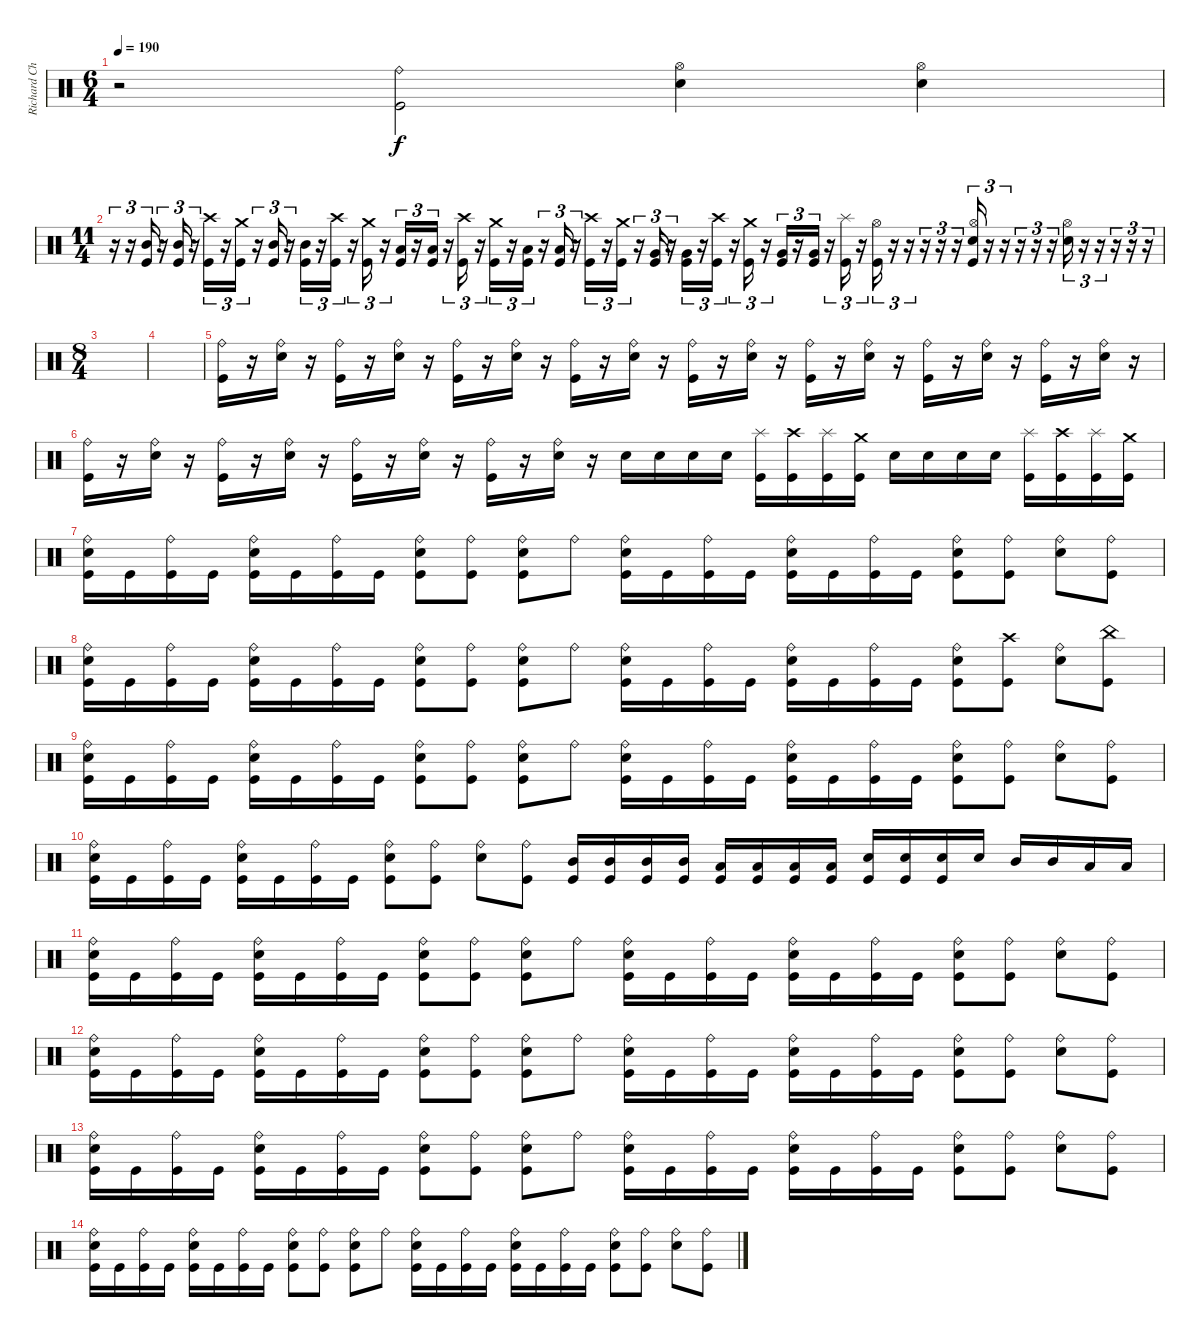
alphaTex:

\track ("Richard Christy" "Richard Ch") {instrument percussion}
\staff {score}
\articulation defaults
\ts (6 4)
\tempo 190
\clef neutral
\ks c
r.2{dy f} ("Ride (bell)" "Kick (hit)").2 ("Hi-Hat (open)" "Snare (hit) 2").4 ("Hi-Hat (open)" "Snare (hit) 2").4 |
\ts (11 4)
r.16{tu (3 2)} r.16{tu (3 2)} ("Mid Tom (hit)" "Kick (hit)").16{tu (3 2)} r.16{tu (3 2)} ("Mid Tom (hit)" "Kick (hit)").16{tu (3 2)} r.16{tu (3 2)} ("Crash high (hit)" "Kick (hit)").16{tu (3 2)} r.16{tu (3 2)} ("Crash medium (hit)" "Kick (hit)").16{tu (3 2)} r.16{tu (3 2)} ("Mid Tom (hit)" "Kick (hit)").16{tu (3 2)} r.16{tu (3 2)} ("Mid Tom (hit)" "Kick (hit)").16{tu (3 2)} r.16{tu (3 2)} ("Crash high (hit)" "Kick (hit)").16{tu (3 2)} r.16{tu (3 2)} ("Crash medium (hit)" "Kick (hit)").16{tu (3 2)} r.16{tu (3 2)} ("Low Tom (hit)" "Kick (hit)").16{tu (3 2)} r.16{tu (3 2)} ("Low Tom (hit)" "Kick (hit)").16{tu (3 2)} r.16{tu (3 2)} ("Crash high (hit)" "Kick (hit)").16{tu (3 2)} r.16{tu (3 2)} ("Crash medium (hit)" "Kick (hit)").16{tu (3 2)} r.16{tu (3 2)} ("Low Tom (hit)" "Kick (hit)").16{tu (3 2)} r.16{tu (3 2)} ("Low Tom (hit)" "Kick (hit)").16{tu (3 2)} r.16{tu (3 2)} ("Crash high (hit)" "Kick (hit)").16{tu (3 2)} r.16{tu (3 2)} ("Crash medium (hit)" "Kick (hit)").16{tu (3 2)} r.16{tu (3 2)} ("Very Low Tom (hit)" "Kick (hit)").16{tu (3 2)} r.16{tu (3 2)} ("Very Low Tom (hit)" "Kick (hit)").16{tu (3 2)} r.16{tu (3 2)} ("Crash high (hit)" "Kick (hit)").16{tu (3 2)} r.16{tu (3 2)} ("Crash medium (hit)" "Kick (hit)").16{tu (3 2)} r.16{tu (3 2)} ("Very Low Tom (hit)" "Kick (hit)").16{tu (3 2)} r.16{tu (3 2)} ("Very Low Tom (hit)" "Kick (hit)").16{tu (3 2)} r.16{tu (3 2)} ("Splash (hit)" "Kick (hit)").16{tu (3 2)} r.16{tu (3 2)} ("Hi-Hat (open)" "Kick (hit)").16{tu (3 2)} r.16{tu (3 2)} r.16{tu (3 2)} r.16{tu (3 2)} r.16{tu (3 2)} r.16{tu (3 2)} ("Hi-Hat (open)" "Snare (hit) 2" "Kick (hit)").16{tu (3 2)} r.16{tu (3 2)} r.16{tu (3 2)} r.16{tu (3 2)} r.16{tu (3 2)} r.16{tu (3 2)} ("Hi-Hat (open)" "Snare (hit) 2").16{tu (3 2)} r.16{tu (3 2)} r.16{tu (3 2)} r.16{tu (3 2)} r.16{tu (3 2)} r.16{tu (3 2)} |
\ts (8 4)
|
|
("Ride (bell)" "Kick (hit)").16 r.16 ("Ride (bell)" "Snare (hit) 2").16 r.16 ("Ride (bell)" "Kick (hit)").16 r.16 ("Ride (bell)" "Snare (hit) 2").16 r.16 ("Ride (bell)" "Kick (hit)").16 r.16 ("Ride (bell)" "Snare (hit) 2").16 r.16 ("Ride (bell)" "Kick (hit)").16 r.16 ("Ride (bell)" "Snare (hit) 2").16 r.16 ("Ride (bell)" "Kick (hit)").16 r.16 ("Ride (bell)" "Snare (hit) 2").16 r.16 ("Ride (bell)" "Kick (hit)").16 r.16 ("Ride (bell)" "Snare (hit) 2").16 r.16 ("Ride (bell)" "Kick (hit)").16 r.16 ("Ride (bell)" "Snare (hit) 2").16 r.16 ("Ride (bell)" "Kick (hit)").16 r.16 ("Ride (bell)" "Snare (hit) 2").16 r.16 |
("Ride (bell)" "Kick (hit)").16 r.16 ("Ride (bell)" "Snare (hit) 2").16 r.16 ("Ride (bell)" "Kick (hit)").16 r.16 ("Ride (bell)" "Snare (hit) 2").16 r.16 ("Ride (bell)" "Kick (hit)").16 r.16 ("Ride (bell)" "Snare (hit) 2").16 r.16 ("Ride (bell)" "Kick (hit)").16 r.16 ("Ride (bell)" "Snare (hit) 2").16 r.16 "Snare (hit) 2".16 "Snare (hit) 2".16 "Snare (hit) 2".16 "Snare (hit) 2".16 ("Splash (hit)" "Kick (hit)").16 ("Crash high (hit)" "Kick (hit)").16 ("Splash (hit)" "Kick (hit)").16 ("Crash medium (hit)" "Kick (hit)").16 "Snare (hit) 2".16 "Snare (hit) 2".16 "Snare (hit) 2".16 "Snare (hit) 2".16 ("Splash (hit)" "Kick (hit)").16 ("Crash high (hit)" "Kick (hit)").16 ("Splash (hit)" "Kick (hit)").16 ("Crash medium (hit)" "Kick (hit)").16 |
("Ride (bell)" "Snare (hit) 2" "Kick (hit)").16 "Kick (hit)".16 ("Ride (bell)" "Kick (hit)").16 "Kick (hit)".16 ("Ride (bell)" "Snare (hit) 2" "Kick (hit)").16 "Kick (hit)".16 ("Ride (bell)" "Kick (hit)").16 "Kick (hit)".16 ("Ride (bell)" "Snare (hit) 2" "Kick (hit)").8 ("Ride (bell)" "Kick (hit)").8 ("Ride (bell)" "Snare (hit) 2" "Kick (hit)").8 "Ride (bell)".8 ("Ride (bell)" "Snare (hit) 2" "Kick (hit)").16 "Kick (hit)".16 ("Ride (bell)" "Kick (hit)").16 "Kick (hit)".16 ("Ride (bell)" "Snare (hit) 2" "Kick (hit)").16 "Kick (hit)".16 ("Ride (bell)" "Kick (hit)").16 "Kick (hit)".16 ("Ride (bell)" "Snare (hit) 2" "Kick (hit)").8 ("Ride (bell)" "Kick (hit)").8 ("Ride (bell)" "Snare (hit) 2").8 ("Ride (bell)" "Kick (hit)").8 |
("Ride (bell)" "Snare (hit) 2" "Kick (hit)").16 "Kick (hit)".16 ("Ride (bell)" "Kick (hit)").16 "Kick (hit)".16 ("Ride (bell)" "Snare (hit) 2" "Kick (hit)").16 "Kick (hit)".16 ("Ride (bell)" "Kick (hit)").16 "Kick (hit)".16 ("Ride (bell)" "Snare (hit) 2" "Kick (hit)").8 ("Ride (bell)" "Kick (hit)").8 ("Ride (bell)" "Snare (hit) 2" "Kick (hit)").8 "Ride (bell)".8 ("Ride (bell)" "Snare (hit) 2" "Kick (hit)").16 "Kick (hit)".16 ("Ride (bell)" "Kick (hit)").16 "Kick (hit)".16 ("Ride (bell)" "Snare (hit) 2" "Kick (hit)").16 "Kick (hit)".16 ("Ride (bell)" "Kick (hit)").16 "Kick (hit)".16 ("Ride (bell)" "Snare (hit) 2" "Kick (hit)").8 ("Crash high (hit)" "Kick (hit)").8 ("Ride (bell)" "Snare (hit) 2").8 ("China (hit)" "Kick (hit)").8 |
("Ride (bell)" "Snare (hit) 2" "Kick (hit)").16 "Kick (hit)".16 ("Ride (bell)" "Kick (hit)").16 "Kick (hit)".16 ("Ride (bell)" "Snare (hit) 2" "Kick (hit)").16 "Kick (hit)".16 ("Ride (bell)" "Kick (hit)").16 "Kick (hit)".16 ("Ride (bell)" "Snare (hit) 2" "Kick (hit)").8 ("Ride (bell)" "Kick (hit)").8 ("Ride (bell)" "Snare (hit) 2" "Kick (hit)").8 "Ride (bell)".8 ("Ride (bell)" "Snare (hit) 2" "Kick (hit)").16 "Kick (hit)".16 ("Ride (bell)" "Kick (hit)").16 "Kick (hit)".16 ("Ride (bell)" "Snare (hit) 2" "Kick (hit)").16 "Kick (hit)".16 ("Ride (bell)" "Kick (hit)").16 "Kick (hit)".16 ("Ride (bell)" "Snare (hit) 2" "Kick (hit)").8 ("Ride (bell)" "Kick (hit)").8 ("Ride (bell)" "Snare (hit) 2").8 ("Ride (bell)" "Kick (hit)").8 |
("Ride (bell)" "Snare (hit) 2" "Kick (hit)").16 "Kick (hit)".16 ("Ride (bell)" "Kick (hit)").16 "Kick (hit)".16 ("Ride (bell)" "Snare (hit) 2" "Kick (hit)").16 "Kick (hit)".16 ("Ride (bell)" "Kick (hit)").16 "Kick (hit)".16 ("Ride (bell)" "Snare (hit) 2" "Kick (hit)").8 ("Ride (bell)" "Kick (hit)").8 ("Ride (bell)" "Snare (hit) 2").8 ("Ride (bell)" "Kick (hit)").8 ("Mid Tom (hit)" "Kick (hit)").16 ("Mid Tom (hit)" "Kick (hit)").16 ("Mid Tom (hit)" "Kick (hit)").16 ("Mid Tom (hit)" "Kick (hit)").16 ("Low Tom (hit)" "Kick (hit)").16 ("Low Tom (hit)" "Kick (hit)").16 ("Low Tom (hit)" "Kick (hit)").16 ("Low Tom (hit)" "Kick (hit)").16 ("Snare (hit) 2" "Kick (hit)").16 ("Snare (hit) 2" "Kick (hit)").16 ("Snare (hit) 2" "Kick (hit)").16 "Snare (hit) 2".16 "Mid Tom (hit)".16 "Mid Tom (hit)".16 "Low Tom (hit)".16 "Low Tom (hit)".16 |
("Ride (bell)" "Snare (hit) 2" "Kick (hit)").16 "Kick (hit)".16 ("Ride (bell)" "Kick (hit)").16 "Kick (hit)".16 ("Ride (bell)" "Snare (hit) 2" "Kick (hit)").16 "Kick (hit)".16 ("Ride (bell)" "Kick (hit)").16 "Kick (hit)".16 ("Ride (bell)" "Snare (hit) 2" "Kick (hit)").8 ("Ride (bell)" "Kick (hit)").8 ("Ride (bell)" "Snare (hit) 2" "Kick (hit)").8 "Ride (bell)".8 ("Ride (bell)" "Snare (hit) 2" "Kick (hit)").16 "Kick (hit)".16 ("Ride (bell)" "Kick (hit)").16 "Kick (hit)".16 ("Ride (bell)" "Snare (hit) 2" "Kick (hit)").16 "Kick (hit)".16 ("Ride (bell)" "Kick (hit)").16 "Kick (hit)".16 ("Ride (bell)" "Snare (hit) 2" "Kick (hit)").8 ("Ride (bell)" "Kick (hit)").8 ("Ride (bell)" "Snare (hit) 2").8 ("Ride (bell)" "Kick (hit)").8 |
("Ride (bell)" "Snare (hit) 2" "Kick (hit)").16 "Kick (hit)".16 ("Ride (bell)" "Kick (hit)").16 "Kick (hit)".16 ("Ride (bell)" "Snare (hit) 2" "Kick (hit)").16 "Kick (hit)".16 ("Ride (bell)" "Kick (hit)").16 "Kick (hit)".16 ("Ride (bell)" "Snare (hit) 2" "Kick (hit)").8 ("Ride (bell)" "Kick (hit)").8 ("Ride (bell)" "Snare (hit) 2" "Kick (hit)").8 "Ride (bell)".8 ("Ride (bell)" "Snare (hit) 2" "Kick (hit)").16 "Kick (hit)".16 ("Ride (bell)" "Kick (hit)").16 "Kick (hit)".16 ("Ride (bell)" "Snare (hit) 2" "Kick (hit)").16 "Kick (hit)".16 ("Ride (bell)" "Kick (hit)").16 "Kick (hit)".16 ("Ride (bell)" "Snare (hit) 2" "Kick (hit)").8 ("Ride (bell)" "Kick (hit)").8 ("Ride (bell)" "Snare (hit) 2").8 ("Ride (bell)" "Kick (hit)").8 |
("Ride (bell)" "Snare (hit) 2" "Kick (hit)").16 "Kick (hit)".16 ("Ride (bell)" "Kick (hit)").16 "Kick (hit)".16 ("Ride (bell)" "Snare (hit) 2" "Kick (hit)").16 "Kick (hit)".16 ("Ride (bell)" "Kick (hit)").16 "Kick (hit)".16 ("Ride (bell)" "Snare (hit) 2" "Kick (hit)").8 ("Ride (bell)" "Kick (hit)").8 ("Ride (bell)" "Snare (hit) 2" "Kick (hit)").8 "Ride (bell)".8 ("Ride (bell)" "Snare (hit) 2" "Kick (hit)").16 "Kick (hit)".16 ("Ride (bell)" "Kick (hit)").16 "Kick (hit)".16 ("Ride (bell)" "Snare (hit) 2" "Kick (hit)").16 "Kick (hit)".16 ("Ride (bell)" "Kick (hit)").16 "Kick (hit)".16 ("Ride (bell)" "Snare (hit) 2" "Kick (hit)").8 ("Ride (bell)" "Kick (hit)").8 ("Ride (bell)" "Snare (hit) 2").8 ("Ride (bell)" "Kick (hit)").8 |
("Ride (bell)" "Snare (hit) 2" "Kick (hit)").16 "Kick (hit)".16 ("Ride (bell)" "Kick (hit)").16 "Kick (hit)".16 ("Ride (bell)" "Snare (hit) 2" "Kick (hit)").16 "Kick (hit)".16 ("Ride (bell)" "Kick (hit)").16 "Kick (hit)".16 ("Ride (bell)" "Snare (hit) 2" "Kick (hit)").8 ("Ride (bell)" "Kick (hit)").8 ("Ride (bell)" "Snare (hit) 2" "Kick (hit)").8 "Ride (bell)".8 ("Ride (bell)" "Snare (hit) 2" "Kick (hit)").16 "Kick (hit)".16 ("Ride (bell)" "Kick (hit)").16 "Kick (hit)".16 ("Ride (bell)" "Snare (hit) 2" "Kick (hit)").16 "Kick (hit)".16 ("Ride (bell)" "Kick (hit)").16 "Kick (hit)".16 ("Ride (bell)" "Snare (hit) 2" "Kick (hit)").8 ("Ride (bell)" "Kick (hit)").8 ("Ride (bell)" "Snare (hit) 2").8 ("Ride (bell)" "Kick (hit)").8
